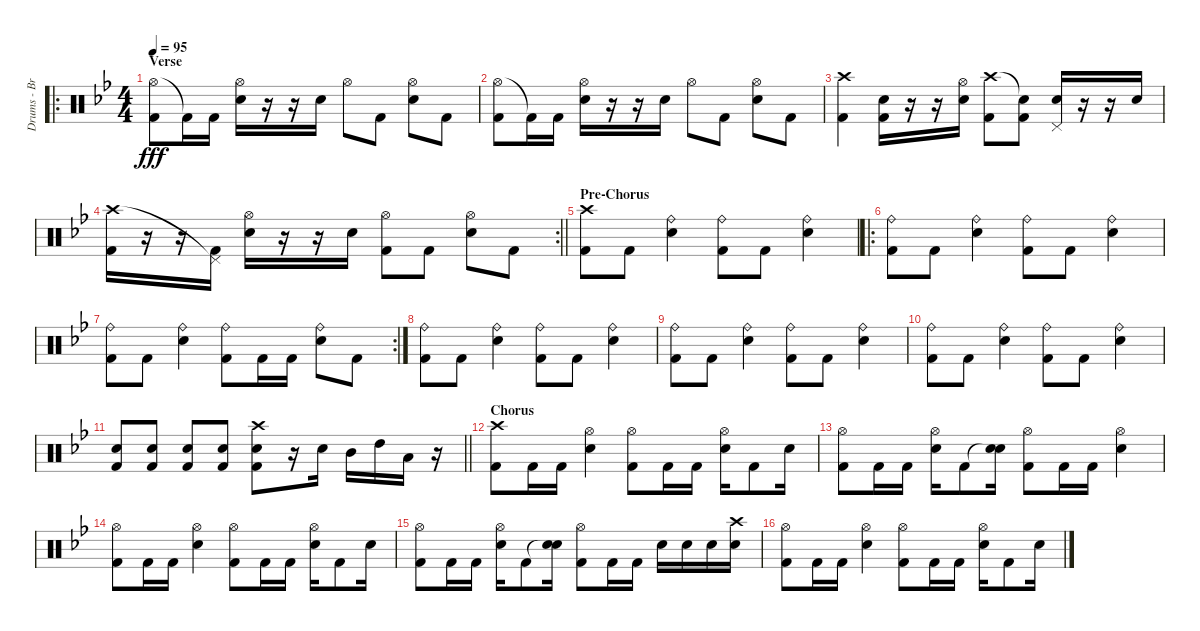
\track ("Drums - Brooks Wackerman" "Drums - Br") {instrument percussion}
\staff {score}
\articulation defaults
\ro
\ts (4 4)
\section ("" "Verse")
\tempo 95
\clef neutral
\ks bb
("Hi-Hat (open)" "Kick (hit) 2").8{dy fff} "Kick (hit) 2"{t}.16 "Kick (hit) 2".16 ("Hi-Hat (open)" "Electric Snare (hit)").16 r.16 r.16 "Electric Snare (hit)".16 "Hi-Hat (open)".8 "Kick (hit) 2".8 ("Hi-Hat (open)" "Electric Snare (hit)").8 "Kick (hit) 2".8 |
("Hi-Hat (open)" "Kick (hit) 2").8 "Kick (hit) 2"{t}.16 "Kick (hit) 2".16 ("Hi-Hat (open)" "Electric Snare (hit)").16 r.16 r.16 "Electric Snare (hit)".16 "Hi-Hat (open)".8 "Kick (hit) 2".8 ("Hi-Hat (open)" "Electric Snare (hit)").8 "Kick (hit) 2".8 |
("Crash high (hit)" "Kick (hit) 2").4 ("Electric Snare (hit)" "Kick (hit) 2").16 r.16 r.16 ("Hi-Hat (open)" "Electric Snare (hit)").16 ("Crash high (hit)" "Kick (hit) 2").8 ("Snare (hit)"{t} "Kick (hit) 2").8 ("Pedal Hi-Hat (hit)" "Electric Snare (hit)").16 r.16 r.16 "Electric Snare (hit)".16 |
\rc 2
\barLineRight lightlight
("Crash high (hit)" "Kick (hit) 2").16 r.16 r.16 ("Pedal Hi-Hat (hit)"{t} "Kick (hit) 2").16 ("Hi-Hat (open)" "Electric Snare (hit)").16 r.16 r.16 "Electric Snare (hit)".16 ("Hi-Hat (open)" "Kick (hit) 2").8 "Kick (hit) 2".8 ("Hi-Hat (open)" "Electric Snare (hit)").8 "Kick (hit) 2".8 |
\section ("" "Pre-Chorus")
("Crash high (hit)" "Kick (hit) 2").8 "Kick (hit) 2".8 ("Electric Snare (hit)" "Ride (bell)").4 ("Ride (bell)" "Kick (hit) 2").8 "Kick (hit) 2".8 ("Electric Snare (hit)" "Ride (bell)").4 |
\ro
("Ride (bell)" "Kick (hit) 2").8 "Kick (hit) 2".8 ("Electric Snare (hit)" "Ride (bell)").4 ("Ride (bell)" "Kick (hit) 2").8 "Kick (hit) 2".8 ("Electric Snare (hit)" "Ride (bell)").4 |
\rc 2
("Ride (bell)" "Kick (hit) 2").8 "Kick (hit) 2".8 ("Electric Snare (hit)" "Ride (bell)").4 ("Ride (bell)" "Kick (hit) 2").8 "Kick (hit) 2".16 "Kick (hit) 2".16 ("Electric Snare (hit)" "Ride (bell)").8 "Kick (hit) 2".8 |
("Ride (bell)" "Kick (hit) 2").8 "Kick (hit) 2".8 ("Electric Snare (hit)" "Ride (bell)").4 ("Ride (bell)" "Kick (hit) 2").8 "Kick (hit) 2".8 ("Electric Snare (hit)" "Ride (bell)").4 |
("Ride (bell)" "Kick (hit) 2").8 "Kick (hit) 2".8 ("Electric Snare (hit)" "Ride (bell)").4 ("Ride (bell)" "Kick (hit) 2").8 "Kick (hit) 2".8 ("Electric Snare (hit)" "Ride (bell)").4 |
("Ride (bell)" "Kick (hit) 2").8 "Kick (hit) 2".8 ("Electric Snare (hit)" "Ride (bell)").4 ("Ride (bell)" "Kick (hit) 2").8 "Kick (hit) 2".8 ("Electric Snare (hit)" "Ride (bell)").4 |
\barLineRight lightlight
("Electric Snare (hit)" "Kick (hit) 2").8 ("Electric Snare (hit)" "Kick (hit) 2").8 ("Electric Snare (hit)" "Kick (hit) 2").8 ("Electric Snare (hit)" "Kick (hit) 2").8 ("Crash high (hit)" "Electric Snare (hit)" "Kick (hit) 2").8 r.16 "Electric Snare (hit)".16 "Mid Tom (hit)".16 "High Tom (hit)".16 "Low Tom (hit)".16 r.16 |
\section ("" "Chorus")
("Crash high (hit)" "Kick (hit) 2").8 "Kick (hit) 2".16 "Kick (hit) 2".16 ("Hi-Hat (open)" "Electric Snare (hit)").4 ("Hi-Hat (open)" "Kick (hit) 2").8 "Kick (hit) 2".16 "Kick (hit) 2".16 ("Hi-Hat (open)" "Electric Snare (hit)").16 "Kick (hit) 2".8 "Electric Snare (hit)".16 |
("Hi-Hat (open)" "Kick (hit) 2").8 "Kick (hit) 2".16 "Kick (hit) 2".16 ("Hi-Hat (open)" "Electric Snare (hit)").16 "Kick (hit) 2".8 ("Snare (hit)"{t} "Electric Snare (hit)").16 ("Hi-Hat (open)" "Kick (hit) 2").8 "Kick (hit) 2".16 "Kick (hit) 2".16 ("Hi-Hat (open)" "Electric Snare (hit)").4 |
("Hi-Hat (open)" "Kick (hit) 2").8 "Kick (hit) 2".16 "Kick (hit) 2".16 ("Hi-Hat (open)" "Electric Snare (hit)").4 ("Hi-Hat (open)" "Kick (hit) 2").8 "Kick (hit) 2".16 "Kick (hit) 2".16 ("Hi-Hat (open)" "Electric Snare (hit)").16 "Kick (hit) 2".8 "Electric Snare (hit)".16 |
("Hi-Hat (open)" "Kick (hit) 2").8 "Kick (hit) 2".16 "Kick (hit) 2".16 ("Hi-Hat (open)" "Electric Snare (hit)").16 "Kick (hit) 2".8 ("Snare (hit)"{t} "Electric Snare (hit)").16 ("Hi-Hat (open)" "Kick (hit) 2").8 "Kick (hit) 2".16 "Kick (hit) 2".16 "Electric Snare (hit)".16 "Electric Snare (hit)".16 "Electric Snare (hit)".16 ("Crash high (hit)" "Electric Snare (hit)").16 |
("Hi-Hat (open)" "Kick (hit) 2").8 "Kick (hit) 2".16 "Kick (hit) 2".16 ("Hi-Hat (open)" "Electric Snare (hit)").4 ("Hi-Hat (open)" "Kick (hit) 2").8 "Kick (hit) 2".16 "Kick (hit) 2".16 ("Hi-Hat (open)" "Electric Snare (hit)").16 "Kick (hit) 2".8 "Electric Snare (hit)".16
